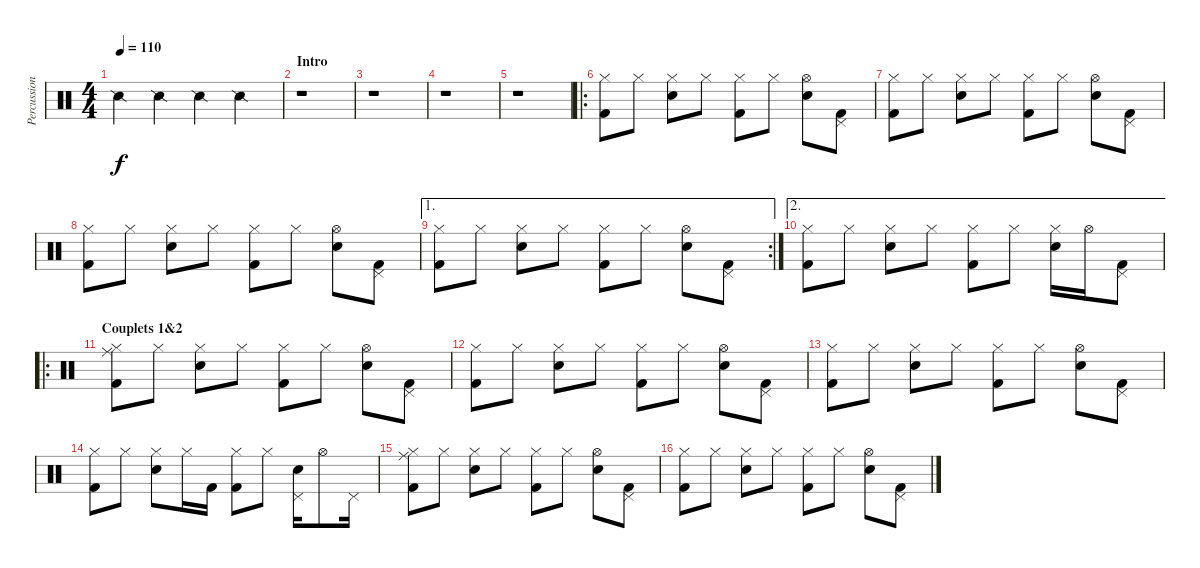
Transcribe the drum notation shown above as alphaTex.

\track ("Percussion" "Percussion") {instrument percussion}
\staff {score}
\articulation defaults
\ts (4 4)
\tempo 110
\clef neutral
\ks c "Snare (side stick) 2".4{dy f} "Snare (side stick) 2".4 "Snare (side stick) 2".4 "Snare (side stick) 2".4
|
\section ("" "Intro")
r.1 |
r.1 |
r.1 |
r.1 |
\ro
("Hi-Hat (closed)" "Kick (hit) 2").8 "Hi-Hat (closed)".8 ("Hi-Hat (closed)" "Snare (hit) 2").8 "Hi-Hat (closed)".8 ("Hi-Hat (closed)" "Kick (hit) 2").8 "Hi-Hat (closed)".8 ("Hi-Hat (open)" "Snare (hit) 2").8 ("Pedal Hi-Hat (hit)" "Kick (hit) 2").8 |
("Hi-Hat (closed)" "Kick (hit) 2").8 "Hi-Hat (closed)".8 ("Hi-Hat (closed)" "Snare (hit) 2").8 "Hi-Hat (closed)".8 ("Hi-Hat (closed)" "Kick (hit) 2").8 "Hi-Hat (closed)".8 ("Hi-Hat (open)" "Snare (hit) 2").8 ("Pedal Hi-Hat (hit)" "Kick (hit) 2").8 |
("Hi-Hat (closed)" "Kick (hit) 2").8 "Hi-Hat (closed)".8 ("Hi-Hat (closed)" "Snare (hit) 2").8 "Hi-Hat (closed)".8 ("Hi-Hat (closed)" "Kick (hit) 2").8 "Hi-Hat (closed)".8 ("Hi-Hat (open)" "Snare (hit) 2").8 ("Pedal Hi-Hat (hit)" "Kick (hit) 2").8 |
\ae 1
\rc 2
("Hi-Hat (closed)" "Kick (hit) 2").8 "Hi-Hat (closed)".8 ("Hi-Hat (closed)" "Snare (hit) 2").8 "Hi-Hat (closed)".8 ("Hi-Hat (closed)" "Kick (hit) 2").8 "Hi-Hat (closed)".8 ("Hi-Hat (open)" "Snare (hit) 2").8 ("Pedal Hi-Hat (hit)" "Kick (hit) 2").8 |
\ae 2
("Hi-Hat (closed)" "Kick (hit) 2").8 "Hi-Hat (closed)".8 ("Hi-Hat (closed)" "Snare (hit) 2").8 "Hi-Hat (closed)".8 ("Hi-Hat (closed)" "Kick (hit) 2").8 "Hi-Hat (closed)".8 ("Hi-Hat (closed)" "Snare (hit) 2").16 "Hi-Hat (open)".16 ("Pedal Hi-Hat (hit)" "Kick (hit) 2").8 |
\ro
\section ("" "Couplets 1&2")
("Hi-Hat (closed)" "Ride (middle)" "Kick (hit) 2").8 "Hi-Hat (closed)".8 ("Hi-Hat (closed)" "Snare (hit) 2").8 "Hi-Hat (closed)".8 ("Hi-Hat (closed)" "Kick (hit) 2").8 "Hi-Hat (closed)".8 ("Hi-Hat (open)" "Snare (hit) 2").8 ("Pedal Hi-Hat (hit)" "Kick (hit) 2").8 |
("Hi-Hat (closed)" "Kick (hit) 2").8 "Hi-Hat (closed)".8 ("Hi-Hat (closed)" "Snare (hit) 2").8 "Hi-Hat (closed)".8 ("Hi-Hat (closed)" "Kick (hit) 2").8 "Hi-Hat (closed)".8 ("Hi-Hat (open)" "Snare (hit) 2").8 ("Pedal Hi-Hat (hit)" "Kick (hit) 2").8 |
("Hi-Hat (closed)" "Kick (hit) 2").8 "Hi-Hat (closed)".8 ("Hi-Hat (closed)" "Snare (hit) 2").8 "Hi-Hat (closed)".8 ("Hi-Hat (closed)" "Kick (hit) 2").8 "Hi-Hat (closed)".8 ("Hi-Hat (open)" "Snare (hit) 2").8 ("Pedal Hi-Hat (hit)" "Kick (hit) 2").8 |
("Hi-Hat (closed)" "Kick (hit) 2").8 "Hi-Hat (closed)".8 ("Hi-Hat (closed)" "Snare (hit) 2").8 "Hi-Hat (closed)".16 "Kick (hit) 2".16 ("Hi-Hat (closed)" "Kick (hit) 2").8 "Hi-Hat (closed)".8 ("Pedal Hi-Hat (hit)" "Snare (hit) 2").16 "Hi-Hat (open)".8 "Pedal Hi-Hat (hit)".16 |
("Hi-Hat (closed)" "Ride (middle)" "Kick (hit) 2").8 "Hi-Hat (closed)".8 ("Hi-Hat (closed)" "Snare (hit) 2").8 "Hi-Hat (closed)".8 ("Hi-Hat (closed)" "Kick (hit) 2").8 "Hi-Hat (closed)".8 ("Hi-Hat (open)" "Snare (hit) 2").8 ("Pedal Hi-Hat (hit)" "Kick (hit) 2").8 |
("Hi-Hat (closed)" "Kick (hit) 2").8 "Hi-Hat (closed)".8 ("Hi-Hat (closed)" "Snare (hit) 2").8 "Hi-Hat (closed)".8 ("Hi-Hat (closed)" "Kick (hit) 2").8 "Hi-Hat (closed)".8 ("Hi-Hat (open)" "Snare (hit) 2").8 ("Pedal Hi-Hat (hit)" "Kick (hit) 2").8
